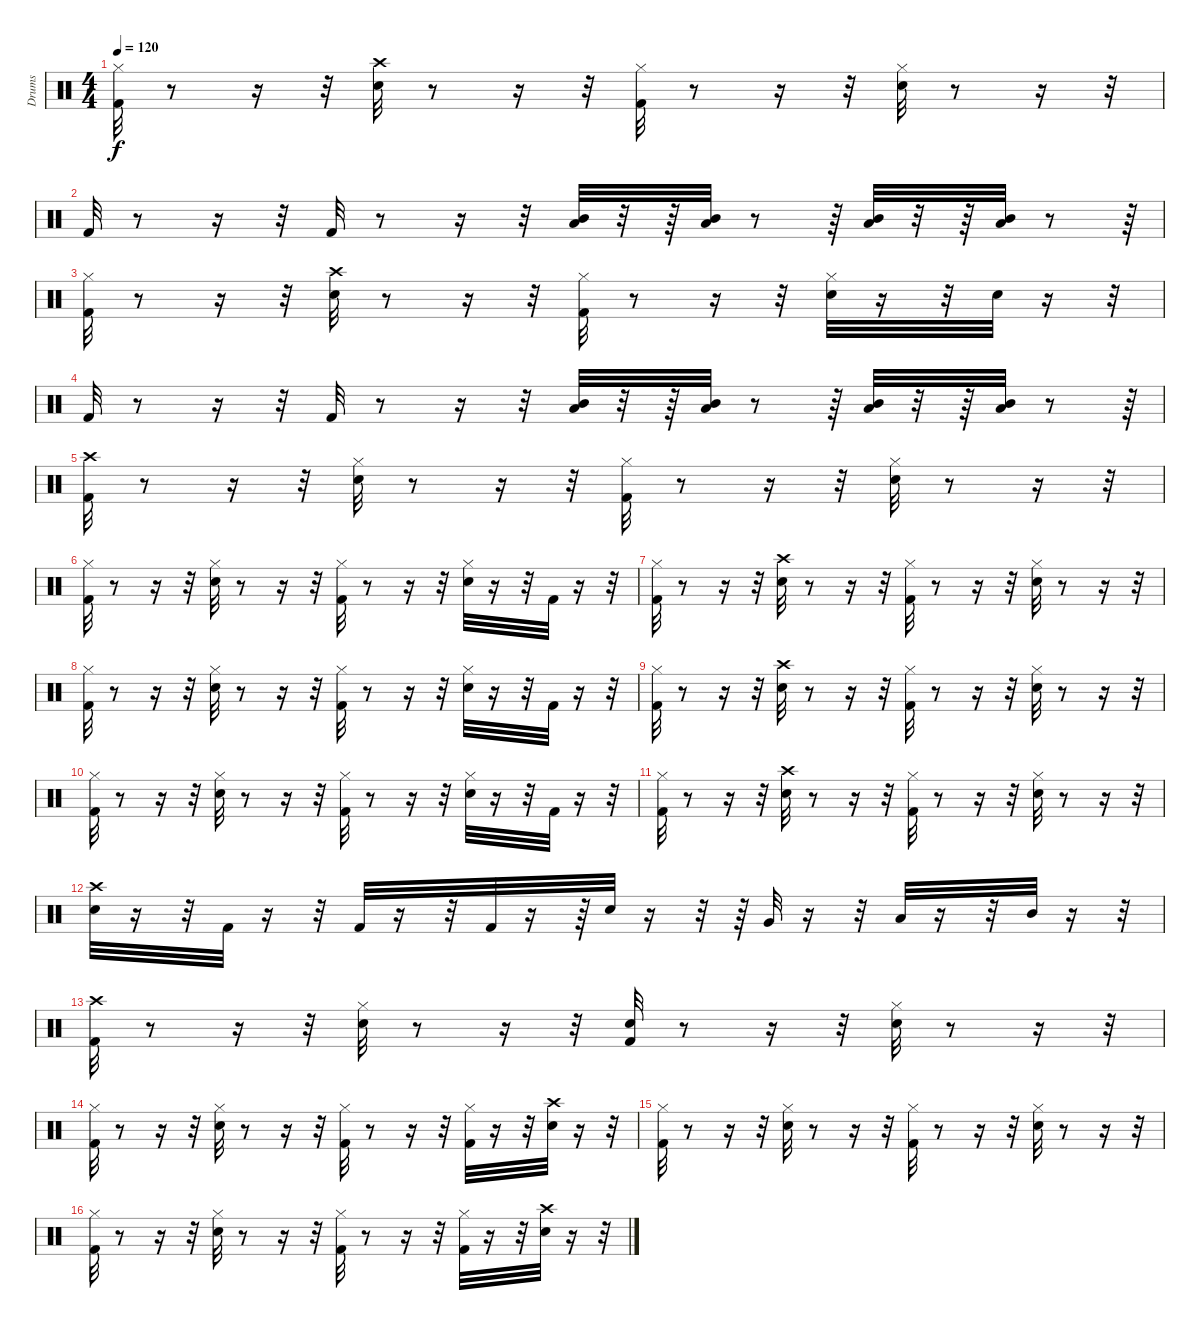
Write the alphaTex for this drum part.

\track ("Drums" "Drums") {instrument percussion}
\staff {score}
\articulation defaults
\ts (4 4)
\tempo 120
\clef neutral
\ks c
("Hi-Hat (closed)" "Kick (hit) 2").32{dy f} r.8 r.16 r.32 ("Electric Snare (hit)" "Crash high (hit)").32 r.8 r.16 r.32 ("Kick (hit) 2" "Hi-Hat (closed)").32 r.8 r.16 r.32 ("Electric Snare (hit)" "Hi-Hat (closed)").32 r.8 r.16 r.32 |
"Kick (hit) 2".32 r.8 r.16 r.32 "Kick (hit) 2".32 r.8 r.16 r.32 ("Mid Tom (hit)" "Low Tom (hit)").32 r.32 r.64 ("Mid Tom (hit)" "Low Tom (hit)").32 r.8 r.64 ("Low Tom (hit)" "Mid Tom (hit)").32 r.32 r.64 ("Low Tom (hit)" "Mid Tom (hit)").32 r.8 r.64 |
("Hi-Hat (closed)" "Kick (hit) 2").32 r.8 r.16 r.32 ("Electric Snare (hit)" "Crash high (hit)").32 r.8 r.16 r.32 ("Kick (hit) 2" "Hi-Hat (closed)").32 r.8 r.16 r.32 ("Electric Snare (hit)" "Hi-Hat (closed)").32 r.16 r.32 "Electric Snare (hit)".32 r.16 r.32 |
"Kick (hit) 2".32 r.8 r.16 r.32 "Kick (hit) 2".32 r.8 r.16 r.32 ("Mid Tom (hit)" "Low Tom (hit)").32 r.32 r.64 ("Mid Tom (hit)" "Low Tom (hit)").32 r.8 r.64 ("Low Tom (hit)" "Mid Tom (hit)").32 r.32 r.64 ("Low Tom (hit)" "Mid Tom (hit)").32 r.8 r.64 |
("Kick (hit) 2" "Crash high (hit)").32 r.8 r.16 r.32 ("Hi-Hat (closed)" "Electric Snare (hit)").32 r.8 r.16 r.32 ("Kick (hit) 2" "Hi-Hat (closed)").32 r.8 r.16 r.32 ("Electric Snare (hit)" "Hi-Hat (closed)").32 r.8 r.16 r.32 |
("Kick (hit) 2" "Hi-Hat (closed)").32 r.8 r.16 r.32 ("Electric Snare (hit)" "Hi-Hat (closed)").32 r.8 r.16 r.32 ("Kick (hit) 2" "Hi-Hat (closed)").32 r.8 r.16 r.32 ("Electric Snare (hit)" "Hi-Hat (closed)").32 r.16 r.32 "Kick (hit) 2".32 r.16 r.32 |
("Kick (hit) 2" "Hi-Hat (closed)").32 r.8 r.16 r.32 ("Crash high (hit)" "Electric Snare (hit)").32 r.8 r.16 r.32 ("Kick (hit) 2" "Hi-Hat (closed)").32 r.8 r.16 r.32 ("Electric Snare (hit)" "Hi-Hat (closed)").32 r.8 r.16 r.32 |
("Kick (hit) 2" "Hi-Hat (closed)").32 r.8 r.16 r.32 ("Electric Snare (hit)" "Hi-Hat (closed)").32 r.8 r.16 r.32 ("Kick (hit) 2" "Hi-Hat (closed)").32 r.8 r.16 r.32 ("Electric Snare (hit)" "Hi-Hat (closed)").32 r.16 r.32 "Kick (hit) 2".32 r.16 r.32 |
("Kick (hit) 2" "Hi-Hat (closed)").32 r.8 r.16 r.32 ("Electric Snare (hit)" "Crash high (hit)").32 r.8 r.16 r.32 ("Kick (hit) 2" "Hi-Hat (closed)").32 r.8 r.16 r.32 ("Electric Snare (hit)" "Hi-Hat (closed)").32 r.8 r.16 r.32 |
("Kick (hit) 2" "Hi-Hat (closed)").32 r.8 r.16 r.32 ("Electric Snare (hit)" "Hi-Hat (closed)").32 r.8 r.16 r.32 ("Kick (hit) 2" "Hi-Hat (closed)").32 r.8 r.16 r.32 ("Electric Snare (hit)" "Hi-Hat (closed)").32 r.16 r.32 "Kick (hit) 2".32 r.16 r.32 |
("Kick (hit) 2" "Hi-Hat (closed)").32 r.8 r.16 r.32 ("Electric Snare (hit)" "Crash high (hit)").32 r.8 r.16 r.32 ("Kick (hit) 2" "Hi-Hat (closed)").32 r.8 r.16 r.32 ("Electric Snare (hit)" "Hi-Hat (closed)").32 r.8 r.16 r.32 |
("Electric Snare (hit)" "Crash high (hit)").32 r.16 r.32 "Kick (hit) 2".32 r.16 r.32 "Kick (hit) 2".32 r.16 r.32 "Kick (hit) 2".32 r.16 r.64 "Electric Snare (hit)".32 r.16 r.32 r.64 "Very Low Tom (hit)".32 r.16 r.32 "Low Tom (hit)".32 r.16 r.32 "Mid Tom (hit)".32 r.16 r.32 |
("Crash high (hit)" "Kick (hit) 2").32 r.8 r.16 r.32 ("Hi-Hat (closed)" "Electric Snare (hit)").32 r.8 r.16 r.32 ("Electric Snare (hit)" "Kick (hit) 2").32 r.8 r.16 r.32 ("Hi-Hat (closed)" "Electric Snare (hit)").32 r.8 r.16 r.32 |
("Kick (hit) 2" "Hi-Hat (closed)").32 r.8 r.16 r.32 ("Electric Snare (hit)" "Hi-Hat (closed)").32 r.8 r.16 r.32 ("Kick (hit) 2" "Hi-Hat (closed)").32 r.8 r.16 r.32 ("Kick (hit) 2" "Hi-Hat (closed)").32 r.16 r.32 ("Electric Snare (hit)" "Crash high (hit)").32 r.16 r.32 |
("Hi-Hat (closed)" "Kick (hit) 2").32 r.8 r.16 r.32 ("Hi-Hat (closed)" "Electric Snare (hit)").32 r.8 r.16 r.32 ("Hi-Hat (closed)" "Kick (hit) 2").32 r.8 r.16 r.32 ("Hi-Hat (closed)" "Electric Snare (hit)").32 r.8 r.16 r.32 |
("Kick (hit) 2" "Hi-Hat (closed)").32 r.8 r.16 r.32 ("Electric Snare (hit)" "Hi-Hat (closed)").32 r.8 r.16 r.32 ("Kick (hit) 2" "Hi-Hat (closed)").32 r.8 r.16 r.32 ("Kick (hit) 2" "Hi-Hat (closed)").32 r.16 r.32 ("Electric Snare (hit)" "Crash high (hit)").32 r.16 r.32
